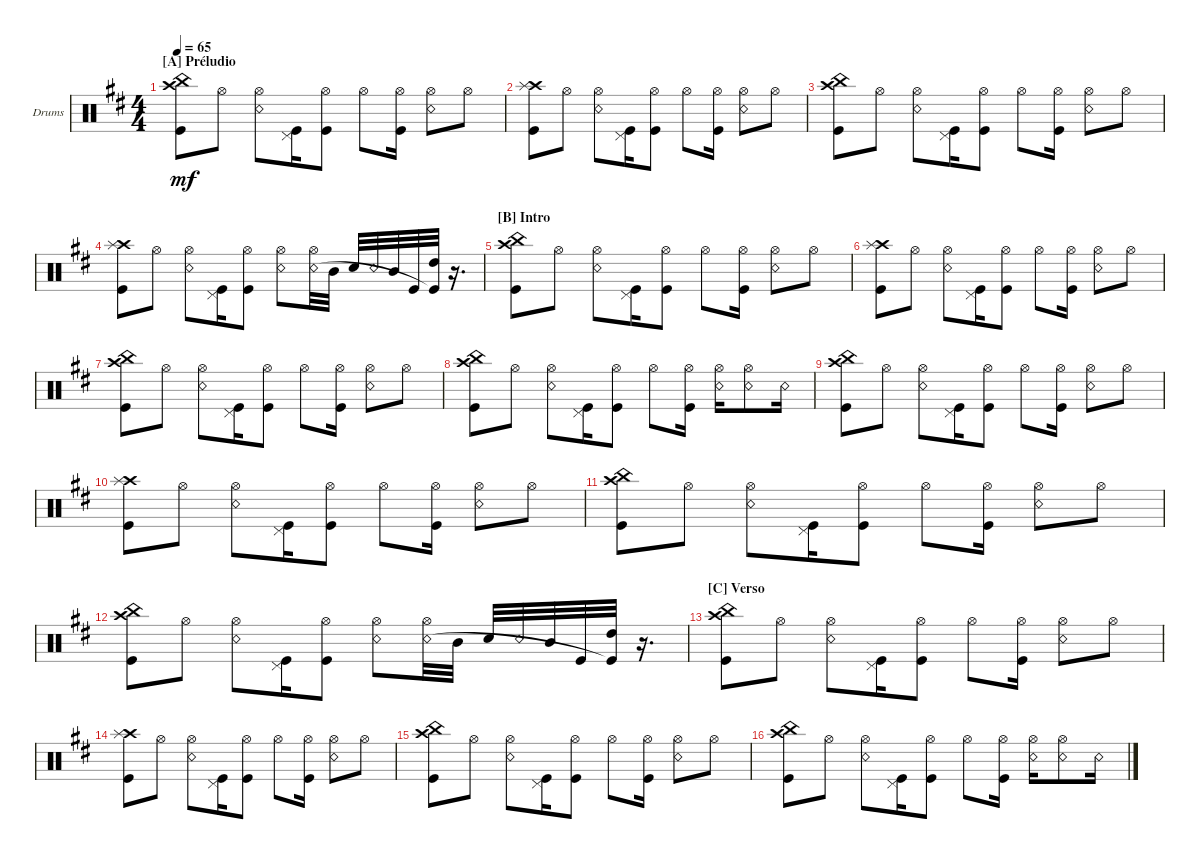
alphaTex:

\defaultSystemsLayout 4
\bracketExtendMode groupsimilarinstruments
\firstSystemTrackNameOrientation horizontal
\otherSystemsTrackNameOrientation horizontal
\track ("Bateria" "Drums") {multiBarRest instrument percussion}
\staff {score}
\articulation defaults
\ts (4 4)
\section ("A" "Préludio")
\tempo 65
\clef neutral
\ks d
("Kick (hit)" "Crash high (hit)" "China (hit)").8{dy mf} "Hi-Hat (open)".8 ("Hi-Hat (open)" "Snare (rim shot)").8 ("Kick (hit)" "Pedal Hi-Hat (hit)").16 ("Hi-Hat (open)" "Kick (hit)").8 "Hi-Hat (open)".8 ("Hi-Hat (open)" "Kick (hit)").16 ("Hi-Hat (open)" "Snare (rim shot)").8 "Hi-Hat (open)".8 |
("Kick (hit)" "Crash high (hit)" "Splash (hit)").8 "Hi-Hat (open)".8 ("Hi-Hat (open)" "Snare (rim shot)").8 ("Kick (hit)" "Pedal Hi-Hat (hit)").16 ("Hi-Hat (open)" "Kick (hit)").8 "Hi-Hat (open)".8 ("Hi-Hat (open)" "Kick (hit)").16 ("Hi-Hat (open)" "Snare (rim shot)").8 "Hi-Hat (open)".8 |
("Kick (hit)" "Crash high (hit)" "China (hit)").8 "Hi-Hat (open)".8 ("Hi-Hat (open)" "Snare (rim shot)").8 ("Kick (hit)" "Pedal Hi-Hat (hit)").16 ("Hi-Hat (open)" "Kick (hit)").8 "Hi-Hat (open)".8 ("Hi-Hat (open)" "Kick (hit)").16 ("Hi-Hat (open)" "Snare (rim shot)").8 "Hi-Hat (open)".8 |
("Kick (hit)" "Crash high (hit)" "Splash (hit)").8 "Hi-Hat (open)".8 ("Hi-Hat (open)" "Snare (rim shot)").8 ("Kick (hit)" "Pedal Hi-Hat (hit)").16 ("Hi-Hat (open)" "Kick (hit)").8 ("Hi-Hat (open)" "Snare (rim shot)").8 ("Hi-Hat (open)" "Snare (rim shot)").32 "Mid Tom (hit)".32 "Snare (hit) 2".32 "Snare (rim shot)".32 "Mid Tom (hit)".32 "Kick (hit)".32 ("High Tom (hit)" "Kick (hit)"{t}).32 r.16{d} |
\section ("B" "Intro")
("Kick (hit)" "Crash high (hit)" "China (hit)").8 "Hi-Hat (open)".8 ("Hi-Hat (open)" "Snare (rim shot)").8 ("Kick (hit)" "Pedal Hi-Hat (hit)").16 ("Hi-Hat (open)" "Kick (hit)").8 "Hi-Hat (open)".8 ("Hi-Hat (open)" "Kick (hit)").16 ("Hi-Hat (open)" "Snare (rim shot)").8 "Hi-Hat (open)".8 |
("Kick (hit)" "Crash high (hit)" "Splash (hit)").8 "Hi-Hat (open)".8 ("Hi-Hat (open)" "Snare (rim shot)").8 ("Kick (hit)" "Pedal Hi-Hat (hit)").16 ("Hi-Hat (open)" "Kick (hit)").8 "Hi-Hat (open)".8 ("Hi-Hat (open)" "Kick (hit)").16 ("Hi-Hat (open)" "Snare (rim shot)").8 "Hi-Hat (open)".8 |
("Kick (hit)" "Crash high (hit)" "China (hit)").8 "Hi-Hat (open)".8 ("Hi-Hat (open)" "Snare (rim shot)").8 ("Kick (hit)" "Pedal Hi-Hat (hit)").16 ("Hi-Hat (open)" "Kick (hit)").8 "Hi-Hat (open)".8 ("Hi-Hat (open)" "Kick (hit)").16 ("Hi-Hat (open)" "Snare (rim shot)").8 "Hi-Hat (open)".8 |
("Kick (hit)" "Crash high (hit)" "China (hit)").8 "Hi-Hat (open)".8 ("Hi-Hat (open)" "Snare (rim shot)").8 ("Kick (hit)" "Pedal Hi-Hat (hit)").16 ("Hi-Hat (open)" "Kick (hit)").8 "Hi-Hat (open)".8 ("Hi-Hat (open)" "Kick (hit)").16 ("Hi-Hat (open)" "Snare (rim shot)").16 ("Hi-Hat (open)" "Snare (rim shot)").8 "Snare (rim shot)".16 |
("Kick (hit)" "Crash high (hit)" "China (hit)").8 "Hi-Hat (open)".8 ("Hi-Hat (open)" "Snare (rim shot)").8 ("Kick (hit)" "Pedal Hi-Hat (hit)").16 ("Hi-Hat (open)" "Kick (hit)").8 "Hi-Hat (open)".8 ("Hi-Hat (open)" "Kick (hit)").16 ("Hi-Hat (open)" "Snare (rim shot)").8 "Hi-Hat (open)".8 |
("Kick (hit)" "Crash high (hit)" "Splash (hit)").8 "Hi-Hat (open)".8 ("Hi-Hat (open)" "Snare (rim shot)").8 ("Kick (hit)" "Pedal Hi-Hat (hit)").16 ("Hi-Hat (open)" "Kick (hit)").8 "Hi-Hat (open)".8 ("Hi-Hat (open)" "Kick (hit)").16 ("Hi-Hat (open)" "Snare (rim shot)").8 "Hi-Hat (open)".8 |
("Kick (hit)" "Crash high (hit)" "China (hit)").8 "Hi-Hat (open)".8 ("Hi-Hat (open)" "Snare (rim shot)").8 ("Kick (hit)" "Pedal Hi-Hat (hit)").16 ("Hi-Hat (open)" "Kick (hit)").8 "Hi-Hat (open)".8 ("Hi-Hat (open)" "Kick (hit)").16 ("Hi-Hat (open)" "Snare (rim shot)").8 "Hi-Hat (open)".8 |
("Kick (hit)" "Crash high (hit)" "China (hit)").8 "Hi-Hat (open)".8 ("Hi-Hat (open)" "Snare (rim shot)").8 ("Kick (hit)" "Pedal Hi-Hat (hit)").16 ("Hi-Hat (open)" "Kick (hit)").8 ("Hi-Hat (open)" "Snare (rim shot)").8 ("Hi-Hat (open)" "Snare (rim shot)").32 "Mid Tom (hit)".32 "Snare (hit) 2".32 "Snare (rim shot)".32 "Mid Tom (hit)".32 "Kick (hit)".32 ("High Tom (hit)" "Kick (hit)"{t}).32 r.16{d} |
\section ("C" "Verso")
("Kick (hit)" "Crash high (hit)" "China (hit)").8 "Hi-Hat (open)".8 ("Hi-Hat (open)" "Snare (rim shot)").8 ("Kick (hit)" "Pedal Hi-Hat (hit)").16 ("Hi-Hat (open)" "Kick (hit)").8 "Hi-Hat (open)".8 ("Hi-Hat (open)" "Kick (hit)").16 ("Hi-Hat (open)" "Snare (rim shot)").8 "Hi-Hat (open)".8 |
("Kick (hit)" "Crash high (hit)" "Splash (hit)").8 "Hi-Hat (open)".8 ("Hi-Hat (open)" "Snare (rim shot)").8 ("Kick (hit)" "Pedal Hi-Hat (hit)").16 ("Hi-Hat (open)" "Kick (hit)").8 "Hi-Hat (open)".8 ("Hi-Hat (open)" "Kick (hit)").16 ("Hi-Hat (open)" "Snare (rim shot)").8 "Hi-Hat (open)".8 |
("Kick (hit)" "Crash high (hit)" "China (hit)").8 "Hi-Hat (open)".8 ("Hi-Hat (open)" "Snare (rim shot)").8 ("Kick (hit)" "Pedal Hi-Hat (hit)").16 ("Hi-Hat (open)" "Kick (hit)").8 "Hi-Hat (open)".8 ("Hi-Hat (open)" "Kick (hit)").16 ("Hi-Hat (open)" "Snare (rim shot)").8 "Hi-Hat (open)".8 |
("Kick (hit)" "Crash high (hit)" "China (hit)").8 "Hi-Hat (open)".8 ("Hi-Hat (open)" "Snare (rim shot)").8 ("Kick (hit)" "Pedal Hi-Hat (hit)").16 ("Hi-Hat (open)" "Kick (hit)").8 "Hi-Hat (open)".8 ("Hi-Hat (open)" "Kick (hit)").16 ("Hi-Hat (open)" "Snare (rim shot)").16 ("Hi-Hat (open)" "Snare (rim shot)").8 "Snare (rim shot)".16
